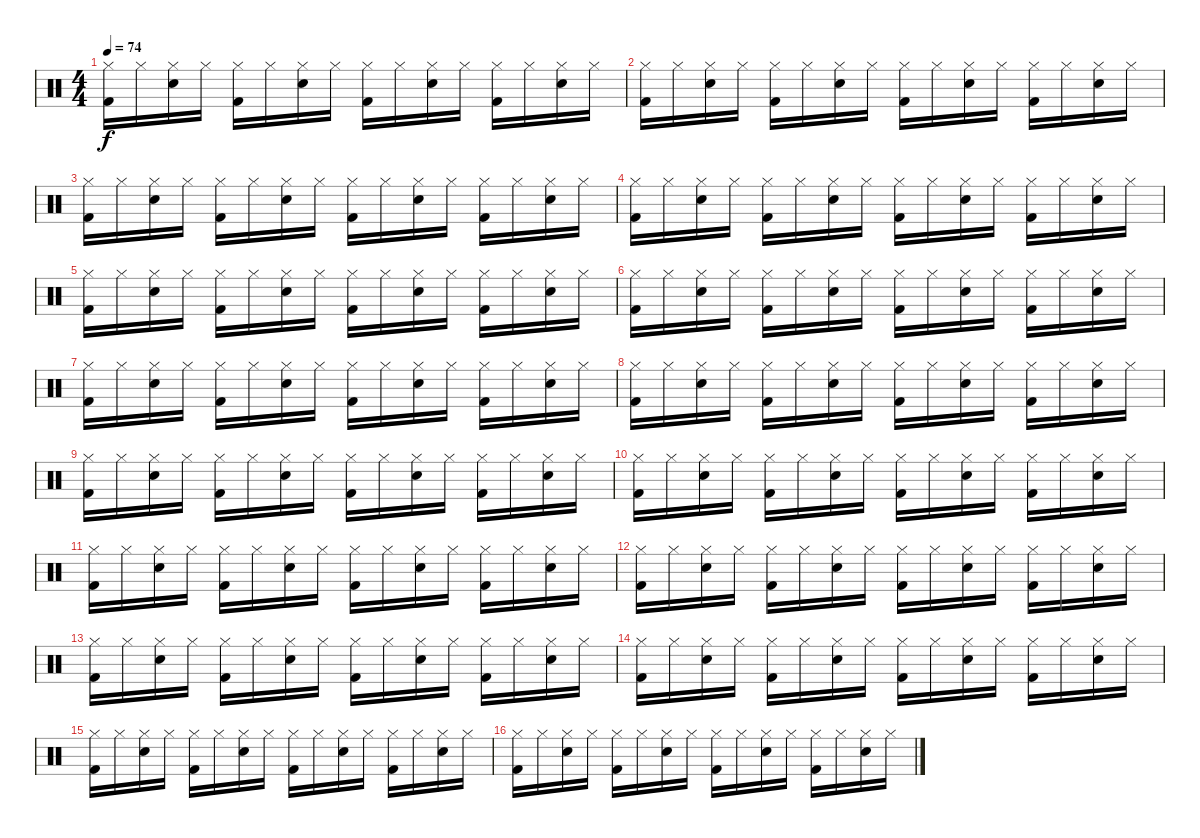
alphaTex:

\track "" {instrument percussion}
\staff {score}
\articulation defaults
\ts (4 4)
\tempo 74
\clef neutral
\ks c
("Hi-Hat (closed)" "Kick (hit) 2").16{dy f} "Hi-Hat (closed)".16 ("Hi-Hat (closed)" "Snare (hit) 2").16 "Hi-Hat (closed)".16 ("Hi-Hat (closed)" "Kick (hit) 2").16 "Hi-Hat (closed)".16 ("Hi-Hat (closed)" "Snare (hit) 2").16 "Hi-Hat (closed)".16 ("Hi-Hat (closed)" "Kick (hit) 2").16 "Hi-Hat (closed)".16 ("Hi-Hat (closed)" "Snare (hit) 2").16 "Hi-Hat (closed)".16 ("Hi-Hat (closed)" "Kick (hit) 2").16 "Hi-Hat (closed)".16 ("Hi-Hat (closed)" "Snare (hit) 2").16 "Hi-Hat (closed)".16 |
("Hi-Hat (closed)" "Kick (hit) 2").16 "Hi-Hat (closed)".16 ("Hi-Hat (closed)" "Snare (hit) 2").16 "Hi-Hat (closed)".16 ("Hi-Hat (closed)" "Kick (hit) 2").16 "Hi-Hat (closed)".16 ("Hi-Hat (closed)" "Snare (hit) 2").16 "Hi-Hat (closed)".16 ("Hi-Hat (closed)" "Kick (hit) 2").16 "Hi-Hat (closed)".16 ("Hi-Hat (closed)" "Snare (hit) 2").16 "Hi-Hat (closed)".16 ("Hi-Hat (closed)" "Kick (hit) 2").16 "Hi-Hat (closed)".16 ("Hi-Hat (closed)" "Snare (hit) 2").16 "Hi-Hat (closed)".16 |
("Hi-Hat (closed)" "Kick (hit) 2").16 "Hi-Hat (closed)".16 ("Hi-Hat (closed)" "Snare (hit) 2").16 "Hi-Hat (closed)".16 ("Hi-Hat (closed)" "Kick (hit) 2").16 "Hi-Hat (closed)".16 ("Hi-Hat (closed)" "Snare (hit) 2").16 "Hi-Hat (closed)".16 ("Hi-Hat (closed)" "Kick (hit) 2").16 "Hi-Hat (closed)".16 ("Hi-Hat (closed)" "Snare (hit) 2").16 "Hi-Hat (closed)".16 ("Hi-Hat (closed)" "Kick (hit) 2").16 "Hi-Hat (closed)".16 ("Hi-Hat (closed)" "Snare (hit) 2").16 "Hi-Hat (closed)".16 |
("Hi-Hat (closed)" "Kick (hit) 2").16 "Hi-Hat (closed)".16 ("Hi-Hat (closed)" "Snare (hit) 2").16 "Hi-Hat (closed)".16 ("Hi-Hat (closed)" "Kick (hit) 2").16 "Hi-Hat (closed)".16 ("Hi-Hat (closed)" "Snare (hit) 2").16 "Hi-Hat (closed)".16 ("Hi-Hat (closed)" "Kick (hit) 2").16 "Hi-Hat (closed)".16 ("Hi-Hat (closed)" "Snare (hit) 2").16 "Hi-Hat (closed)".16 ("Hi-Hat (closed)" "Kick (hit) 2").16 "Hi-Hat (closed)".16 ("Hi-Hat (closed)" "Snare (hit) 2").16 "Hi-Hat (closed)".16 |
("Hi-Hat (closed)" "Kick (hit) 2").16 "Hi-Hat (closed)".16 ("Hi-Hat (closed)" "Snare (hit) 2").16 "Hi-Hat (closed)".16 ("Hi-Hat (closed)" "Kick (hit) 2").16 "Hi-Hat (closed)".16 ("Hi-Hat (closed)" "Snare (hit) 2").16 "Hi-Hat (closed)".16 ("Hi-Hat (closed)" "Kick (hit) 2").16 "Hi-Hat (closed)".16 ("Hi-Hat (closed)" "Snare (hit) 2").16 "Hi-Hat (closed)".16 ("Hi-Hat (closed)" "Kick (hit) 2").16 "Hi-Hat (closed)".16 ("Hi-Hat (closed)" "Snare (hit) 2").16 "Hi-Hat (closed)".16 |
("Hi-Hat (closed)" "Kick (hit) 2").16 "Hi-Hat (closed)".16 ("Hi-Hat (closed)" "Snare (hit) 2").16 "Hi-Hat (closed)".16 ("Hi-Hat (closed)" "Kick (hit) 2").16 "Hi-Hat (closed)".16 ("Hi-Hat (closed)" "Snare (hit) 2").16 "Hi-Hat (closed)".16 ("Hi-Hat (closed)" "Kick (hit) 2").16 "Hi-Hat (closed)".16 ("Hi-Hat (closed)" "Snare (hit) 2").16 "Hi-Hat (closed)".16 ("Hi-Hat (closed)" "Kick (hit) 2").16 "Hi-Hat (closed)".16 ("Hi-Hat (closed)" "Snare (hit) 2").16 "Hi-Hat (closed)".16 |
("Hi-Hat (closed)" "Kick (hit) 2").16 "Hi-Hat (closed)".16 ("Hi-Hat (closed)" "Snare (hit) 2").16 "Hi-Hat (closed)".16 ("Hi-Hat (closed)" "Kick (hit) 2").16 "Hi-Hat (closed)".16 ("Hi-Hat (closed)" "Snare (hit) 2").16 "Hi-Hat (closed)".16 ("Hi-Hat (closed)" "Kick (hit) 2").16 "Hi-Hat (closed)".16 ("Hi-Hat (closed)" "Snare (hit) 2").16 "Hi-Hat (closed)".16 ("Hi-Hat (closed)" "Kick (hit) 2").16 "Hi-Hat (closed)".16 ("Hi-Hat (closed)" "Snare (hit) 2").16 "Hi-Hat (closed)".16 |
("Hi-Hat (closed)" "Kick (hit) 2").16 "Hi-Hat (closed)".16 ("Hi-Hat (closed)" "Snare (hit) 2").16 "Hi-Hat (closed)".16 ("Hi-Hat (closed)" "Kick (hit) 2").16 "Hi-Hat (closed)".16 ("Hi-Hat (closed)" "Snare (hit) 2").16 "Hi-Hat (closed)".16 ("Hi-Hat (closed)" "Kick (hit) 2").16 "Hi-Hat (closed)".16 ("Hi-Hat (closed)" "Snare (hit) 2").16 "Hi-Hat (closed)".16 ("Hi-Hat (closed)" "Kick (hit) 2").16 "Hi-Hat (closed)".16 ("Hi-Hat (closed)" "Snare (hit) 2").16 "Hi-Hat (closed)".16 |
("Hi-Hat (closed)" "Kick (hit) 2").16 "Hi-Hat (closed)".16 ("Hi-Hat (closed)" "Snare (hit) 2").16 "Hi-Hat (closed)".16 ("Hi-Hat (closed)" "Kick (hit) 2").16 "Hi-Hat (closed)".16 ("Hi-Hat (closed)" "Snare (hit) 2").16 "Hi-Hat (closed)".16 ("Hi-Hat (closed)" "Kick (hit) 2").16 "Hi-Hat (closed)".16 ("Hi-Hat (closed)" "Snare (hit) 2").16 "Hi-Hat (closed)".16 ("Hi-Hat (closed)" "Kick (hit) 2").16 "Hi-Hat (closed)".16 ("Hi-Hat (closed)" "Snare (hit) 2").16 "Hi-Hat (closed)".16 |
("Hi-Hat (closed)" "Kick (hit) 2").16 "Hi-Hat (closed)".16 ("Hi-Hat (closed)" "Snare (hit) 2").16 "Hi-Hat (closed)".16 ("Hi-Hat (closed)" "Kick (hit) 2").16 "Hi-Hat (closed)".16 ("Hi-Hat (closed)" "Snare (hit) 2").16 "Hi-Hat (closed)".16 ("Hi-Hat (closed)" "Kick (hit) 2").16 "Hi-Hat (closed)".16 ("Hi-Hat (closed)" "Snare (hit) 2").16 "Hi-Hat (closed)".16 ("Hi-Hat (closed)" "Kick (hit) 2").16 "Hi-Hat (closed)".16 ("Hi-Hat (closed)" "Snare (hit) 2").16 "Hi-Hat (closed)".16 |
("Hi-Hat (closed)" "Kick (hit) 2").16 "Hi-Hat (closed)".16 ("Hi-Hat (closed)" "Snare (hit) 2").16 "Hi-Hat (closed)".16 ("Hi-Hat (closed)" "Kick (hit) 2").16 "Hi-Hat (closed)".16 ("Hi-Hat (closed)" "Snare (hit) 2").16 "Hi-Hat (closed)".16 ("Hi-Hat (closed)" "Kick (hit) 2").16 "Hi-Hat (closed)".16 ("Hi-Hat (closed)" "Snare (hit) 2").16 "Hi-Hat (closed)".16 ("Hi-Hat (closed)" "Kick (hit) 2").16 "Hi-Hat (closed)".16 ("Hi-Hat (closed)" "Snare (hit) 2").16 "Hi-Hat (closed)".16 |
("Hi-Hat (closed)" "Kick (hit) 2").16 "Hi-Hat (closed)".16 ("Hi-Hat (closed)" "Snare (hit) 2").16 "Hi-Hat (closed)".16 ("Hi-Hat (closed)" "Kick (hit) 2").16 "Hi-Hat (closed)".16 ("Hi-Hat (closed)" "Snare (hit) 2").16 "Hi-Hat (closed)".16 ("Hi-Hat (closed)" "Kick (hit) 2").16 "Hi-Hat (closed)".16 ("Hi-Hat (closed)" "Snare (hit) 2").16 "Hi-Hat (closed)".16 ("Hi-Hat (closed)" "Kick (hit) 2").16 "Hi-Hat (closed)".16 ("Hi-Hat (closed)" "Snare (hit) 2").16 "Hi-Hat (closed)".16 |
("Hi-Hat (closed)" "Kick (hit) 2").16 "Hi-Hat (closed)".16 ("Hi-Hat (closed)" "Snare (hit) 2").16 "Hi-Hat (closed)".16 ("Hi-Hat (closed)" "Kick (hit) 2").16 "Hi-Hat (closed)".16 ("Hi-Hat (closed)" "Snare (hit) 2").16 "Hi-Hat (closed)".16 ("Hi-Hat (closed)" "Kick (hit) 2").16 "Hi-Hat (closed)".16 ("Hi-Hat (closed)" "Snare (hit) 2").16 "Hi-Hat (closed)".16 ("Hi-Hat (closed)" "Kick (hit) 2").16 "Hi-Hat (closed)".16 ("Hi-Hat (closed)" "Snare (hit) 2").16 "Hi-Hat (closed)".16 |
("Hi-Hat (closed)" "Kick (hit) 2").16 "Hi-Hat (closed)".16 ("Hi-Hat (closed)" "Snare (hit) 2").16 "Hi-Hat (closed)".16 ("Hi-Hat (closed)" "Kick (hit) 2").16 "Hi-Hat (closed)".16 ("Hi-Hat (closed)" "Snare (hit) 2").16 "Hi-Hat (closed)".16 ("Hi-Hat (closed)" "Kick (hit) 2").16 "Hi-Hat (closed)".16 ("Hi-Hat (closed)" "Snare (hit) 2").16 "Hi-Hat (closed)".16 ("Hi-Hat (closed)" "Kick (hit) 2").16 "Hi-Hat (closed)".16 ("Hi-Hat (closed)" "Snare (hit) 2").16 "Hi-Hat (closed)".16 |
("Hi-Hat (closed)" "Kick (hit) 2").16 "Hi-Hat (closed)".16 ("Hi-Hat (closed)" "Snare (hit) 2").16 "Hi-Hat (closed)".16 ("Hi-Hat (closed)" "Kick (hit) 2").16 "Hi-Hat (closed)".16 ("Hi-Hat (closed)" "Snare (hit) 2").16 "Hi-Hat (closed)".16 ("Hi-Hat (closed)" "Kick (hit) 2").16 "Hi-Hat (closed)".16 ("Hi-Hat (closed)" "Snare (hit) 2").16 "Hi-Hat (closed)".16 ("Hi-Hat (closed)" "Kick (hit) 2").16 "Hi-Hat (closed)".16 ("Hi-Hat (closed)" "Snare (hit) 2").16 "Hi-Hat (closed)".16 |
("Hi-Hat (closed)" "Kick (hit) 2").16 "Hi-Hat (closed)".16 ("Hi-Hat (closed)" "Snare (hit) 2").16 "Hi-Hat (closed)".16 ("Hi-Hat (closed)" "Kick (hit) 2").16 "Hi-Hat (closed)".16 ("Hi-Hat (closed)" "Snare (hit) 2").16 "Hi-Hat (closed)".16 ("Hi-Hat (closed)" "Kick (hit) 2").16 "Hi-Hat (closed)".16 ("Hi-Hat (closed)" "Snare (hit) 2").16 "Hi-Hat (closed)".16 ("Hi-Hat (closed)" "Kick (hit) 2").16 "Hi-Hat (closed)".16 ("Hi-Hat (closed)" "Snare (hit) 2").16 "Hi-Hat (closed)".16
